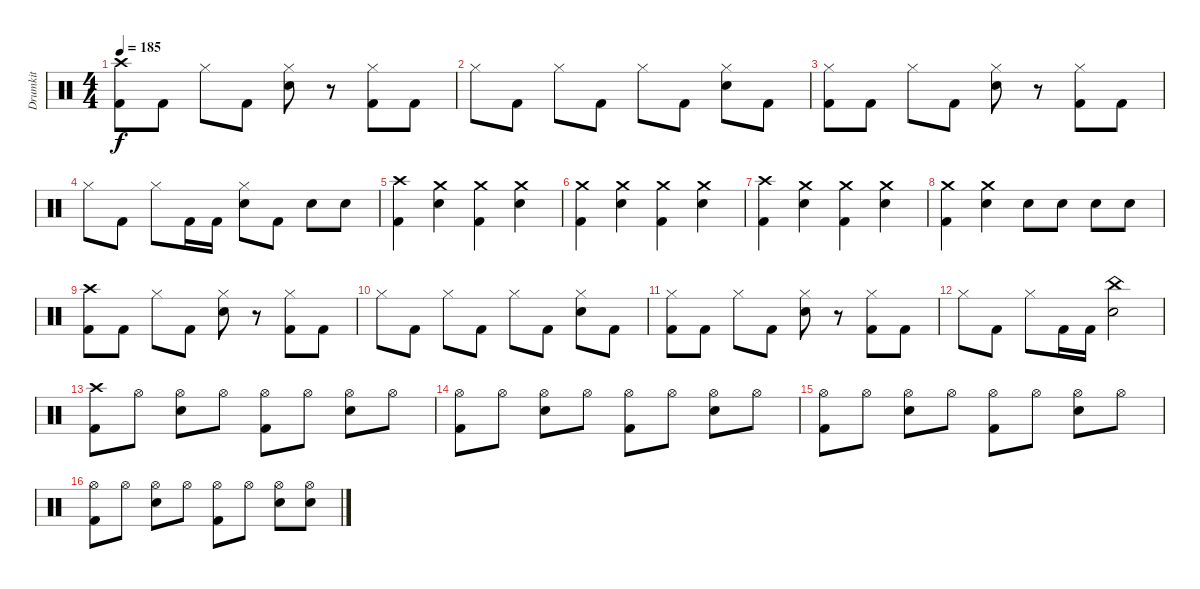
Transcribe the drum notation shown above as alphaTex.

\track ("Drumkit" "Drumkit") {instrument percussion}
\staff {score}
\articulation defaults
\ts (4 4)
\tempo 185
\clef neutral
\ks c
("Crash high (hit)" "Kick (hit) 2").8{dy f} "Kick (hit) 2".8 "Hi-Hat (closed)".8 "Kick (hit) 2".8 ("Hi-Hat (closed)" "Electric Snare (hit)").8 r.8 ("Hi-Hat (closed)" "Kick (hit) 2").8 "Kick (hit) 2".8 |
"Hi-Hat (closed)".8 "Kick (hit) 2".8 "Hi-Hat (closed)".8 "Kick (hit) 2".8 "Hi-Hat (closed)".8 "Kick (hit) 2".8 ("Hi-Hat (closed)" "Electric Snare (hit)").8 "Kick (hit) 2".8 |
("Hi-Hat (closed)" "Kick (hit) 2").8 "Kick (hit) 2".8 "Hi-Hat (closed)".8 "Kick (hit) 2".8 ("Hi-Hat (closed)" "Electric Snare (hit)").8 r.8 ("Hi-Hat (closed)" "Kick (hit) 2").8 "Kick (hit) 2".8 |
"Hi-Hat (closed)".8 "Kick (hit) 2".8 "Hi-Hat (closed)".8 "Kick (hit) 2".16 "Kick (hit) 2".16 ("Hi-Hat (closed)" "Electric Snare (hit)").8 "Kick (hit) 2".8 "Electric Snare (hit)".8 "Electric Snare (hit)".8 |
("Crash high (hit)" "Kick (hit) 2").4 ("Crash medium (hit)" "Electric Snare (hit)").4 ("Crash medium (hit)" "Kick (hit) 2").4 ("Crash medium (hit)" "Electric Snare (hit)").4 |
("Crash medium (hit)" "Kick (hit) 2").4 ("Crash medium (hit)" "Electric Snare (hit)").4 ("Crash medium (hit)" "Kick (hit) 2").4 ("Crash medium (hit)" "Electric Snare (hit)").4 |
("Crash high (hit)" "Kick (hit) 2").4 ("Crash medium (hit)" "Electric Snare (hit)").4 ("Crash medium (hit)" "Kick (hit) 2").4 ("Crash medium (hit)" "Electric Snare (hit)").4 |
("Crash medium (hit)" "Kick (hit) 2").4 ("Crash medium (hit)" "Electric Snare (hit)").4 "Electric Snare (hit)".8 "Electric Snare (hit)".8 "Electric Snare (hit)".8 "Electric Snare (hit)".8 |
("Crash high (hit)" "Kick (hit) 2").8 "Kick (hit) 2".8 "Hi-Hat (closed)".8 "Kick (hit) 2".8 ("Hi-Hat (closed)" "Electric Snare (hit)").8 r.8 ("Hi-Hat (closed)" "Kick (hit) 2").8 "Kick (hit) 2".8 |
"Hi-Hat (closed)".8 "Kick (hit) 2".8 "Hi-Hat (closed)".8 "Kick (hit) 2".8 "Hi-Hat (closed)".8 "Kick (hit) 2".8 ("Hi-Hat (closed)" "Electric Snare (hit)").8 "Kick (hit) 2".8 |
("Hi-Hat (closed)" "Kick (hit) 2").8 "Kick (hit) 2".8 "Hi-Hat (closed)".8 "Kick (hit) 2".8 ("Hi-Hat (closed)" "Electric Snare (hit)").8 r.8 ("Hi-Hat (closed)" "Kick (hit) 2").8 "Kick (hit) 2".8 |
"Hi-Hat (closed)".8 "Kick (hit) 2".8 "Hi-Hat (closed)".8 "Kick (hit) 2".16 "Kick (hit) 2".16 ("China (hit)" "Electric Snare (hit)").2 |
("Crash high (hit)" "Kick (hit) 2").8 "Hi-Hat (open)".8 ("Hi-Hat (open)" "Electric Snare (hit)").8 "Hi-Hat (open)".8 ("Hi-Hat (open)" "Kick (hit) 2").8 "Hi-Hat (open)".8 ("Hi-Hat (open)" "Electric Snare (hit)").8 "Hi-Hat (open)".8 |
("Hi-Hat (open)" "Kick (hit) 2").8 "Hi-Hat (open)".8 ("Hi-Hat (open)" "Electric Snare (hit)").8 "Hi-Hat (open)".8 ("Hi-Hat (open)" "Kick (hit) 2").8 "Hi-Hat (open)".8 ("Hi-Hat (open)" "Electric Snare (hit)").8 "Hi-Hat (open)".8 |
("Hi-Hat (open)" "Kick (hit) 2").8 "Hi-Hat (open)".8 ("Hi-Hat (open)" "Electric Snare (hit)").8 "Hi-Hat (open)".8 ("Hi-Hat (open)" "Kick (hit) 2").8 "Hi-Hat (open)".8 ("Hi-Hat (open)" "Electric Snare (hit)").8 "Hi-Hat (open)".8 |
("Hi-Hat (open)" "Kick (hit) 2").8 "Hi-Hat (open)".8 ("Hi-Hat (open)" "Electric Snare (hit)").8 "Hi-Hat (open)".8 ("Hi-Hat (open)" "Kick (hit) 2").8 "Hi-Hat (open)".8 ("Hi-Hat (open)" "Electric Snare (hit)").8 ("Hi-Hat (open)" "Electric Snare (hit)").8
